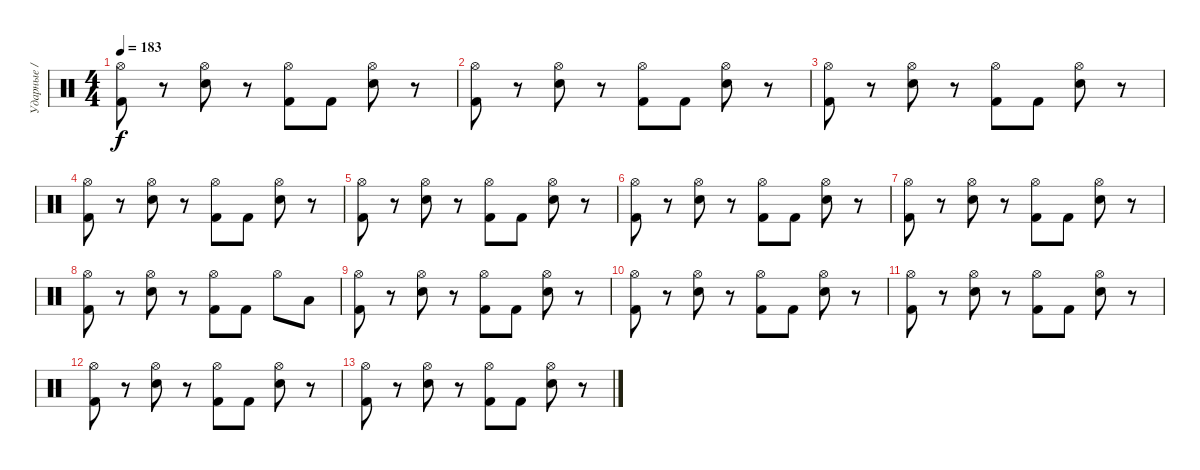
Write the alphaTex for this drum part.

\track ("Ударные / Drums" "Ударные / ") {instrument percussion}
\staff {score}
\articulation defaults
\ts (4 4)
\tempo 183
\clef neutral
\ks c
("Hi-Hat (open)" "Kick (hit) 2").8{dy f} r.8 ("Hi-Hat (open)" "Snare (hit) 2").8 r.8 ("Hi-Hat (open)" "Kick (hit) 2").8 "Kick (hit) 2".8 ("Hi-Hat (open)" "Snare (hit) 2").8 r.8 |
("Hi-Hat (open)" "Kick (hit) 2").8 r.8 ("Hi-Hat (open)" "Snare (hit) 2").8 r.8 ("Hi-Hat (open)" "Kick (hit) 2").8 "Kick (hit) 2".8 ("Hi-Hat (open)" "Snare (hit) 2").8 r.8 |
("Hi-Hat (open)" "Kick (hit) 2").8 r.8 ("Hi-Hat (open)" "Snare (hit) 2").8 r.8 ("Hi-Hat (open)" "Kick (hit) 2").8 "Kick (hit) 2".8 ("Hi-Hat (open)" "Snare (hit) 2").8 r.8 |
("Hi-Hat (open)" "Kick (hit) 2").8 r.8 ("Hi-Hat (open)" "Snare (hit) 2").8 r.8 ("Hi-Hat (open)" "Kick (hit) 2").8 "Kick (hit) 2".8 ("Hi-Hat (open)" "Snare (hit) 2").8 r.8 |
("Hi-Hat (open)" "Kick (hit) 2").8 r.8 ("Hi-Hat (open)" "Snare (hit) 2").8 r.8 ("Hi-Hat (open)" "Kick (hit) 2").8 "Kick (hit) 2".8 ("Hi-Hat (open)" "Snare (hit) 2").8 r.8 |
("Hi-Hat (open)" "Kick (hit) 2").8 r.8 ("Hi-Hat (open)" "Snare (hit) 2").8 r.8 ("Hi-Hat (open)" "Kick (hit) 2").8 "Kick (hit) 2".8 ("Hi-Hat (open)" "Snare (hit) 2").8 r.8 |
("Hi-Hat (open)" "Kick (hit) 2").8 r.8 ("Hi-Hat (open)" "Snare (hit) 2").8 r.8 ("Hi-Hat (open)" "Kick (hit) 2").8 "Kick (hit) 2".8 ("Hi-Hat (open)" "Snare (hit) 2").8 r.8 |
("Hi-Hat (open)" "Kick (hit) 2").8 r.8 ("Hi-Hat (open)" "Snare (hit) 2").8 r.8 ("Hi-Hat (open)" "Kick (hit) 2").8 "Kick (hit) 2".8 "Hi-Hat (open)".8 "Low Tom (hit)".8 |
("Hi-Hat (open)" "Kick (hit) 2").8 r.8 ("Hi-Hat (open)" "Snare (hit) 2").8 r.8 ("Hi-Hat (open)" "Kick (hit) 2").8 "Kick (hit) 2".8 ("Hi-Hat (open)" "Snare (hit) 2").8 r.8 |
("Hi-Hat (open)" "Kick (hit) 2").8 r.8 ("Hi-Hat (open)" "Snare (hit) 2").8 r.8 ("Hi-Hat (open)" "Kick (hit) 2").8 "Kick (hit) 2".8 ("Hi-Hat (open)" "Snare (hit) 2").8 r.8 |
("Hi-Hat (open)" "Kick (hit) 2").8 r.8 ("Hi-Hat (open)" "Snare (hit) 2").8 r.8 ("Hi-Hat (open)" "Kick (hit) 2").8 "Kick (hit) 2".8 ("Hi-Hat (open)" "Snare (hit) 2").8 r.8 |
("Hi-Hat (open)" "Kick (hit) 2").8 r.8 ("Hi-Hat (open)" "Snare (hit) 2").8 r.8 ("Hi-Hat (open)" "Kick (hit) 2").8 "Kick (hit) 2".8 ("Hi-Hat (open)" "Snare (hit) 2").8 r.8 |
("Hi-Hat (open)" "Kick (hit) 2").8 r.8 ("Hi-Hat (open)" "Snare (hit) 2").8 r.8 ("Hi-Hat (open)" "Kick (hit) 2").8 "Kick (hit) 2".8 ("Hi-Hat (open)" "Snare (hit) 2").8 r.8
